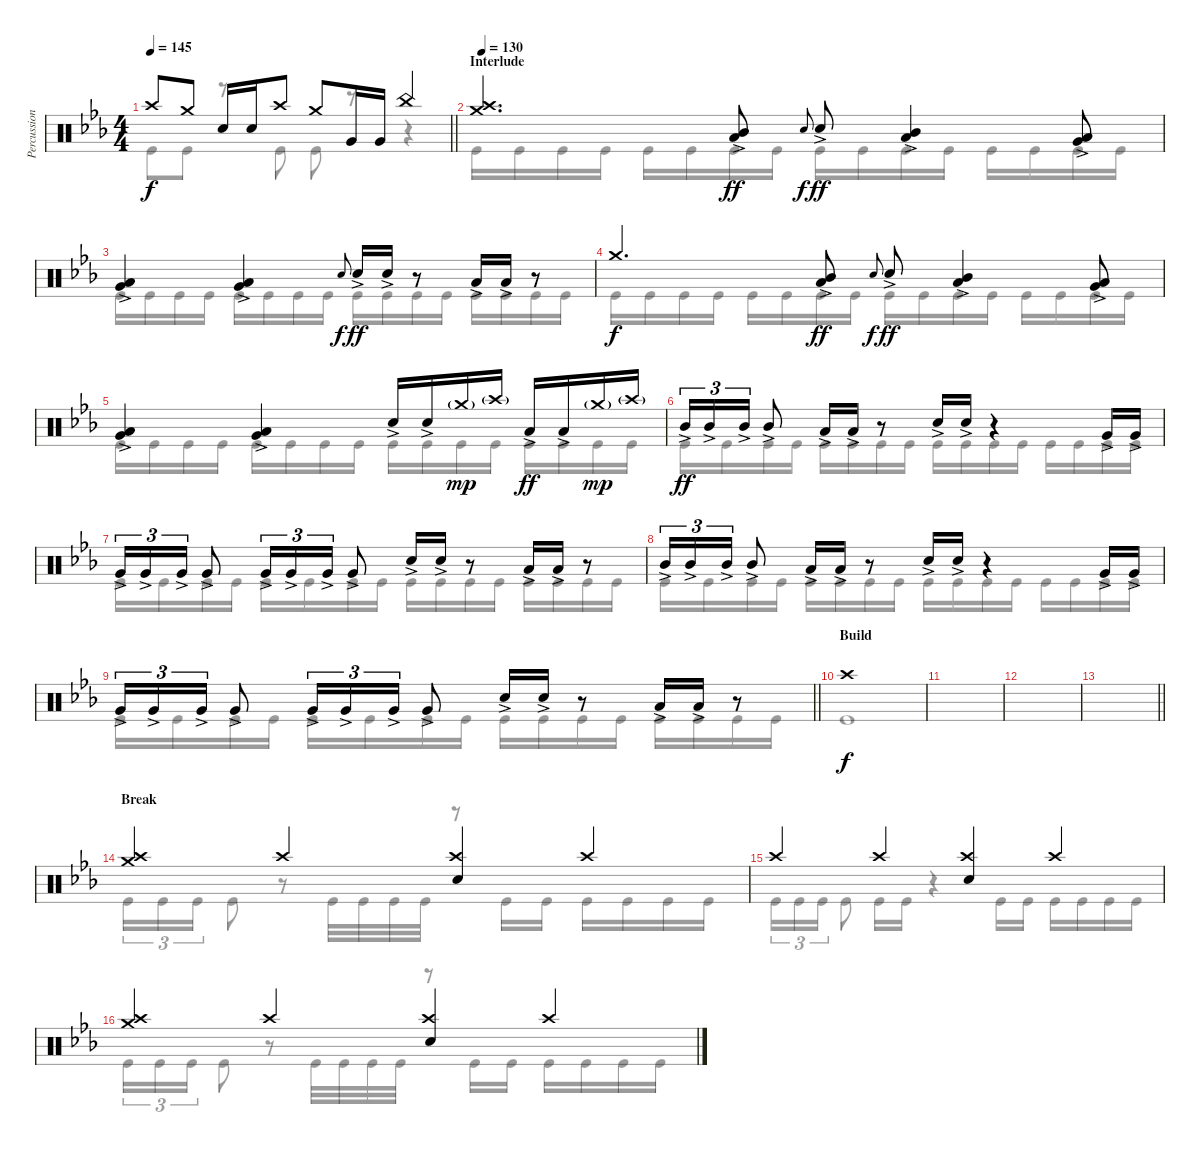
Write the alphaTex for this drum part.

\track ("Percussion" "Percussion") {instrument percussion}
\staff {score}
\articulation defaults
\voice
\ts (4 4)
\tempo 145
\clef neutral
\barLineRight lightlight
\ks cminor "Crash high (hit)".8{dy f} "Crash medium (hit)".8 "Electric Snare (hit)".16 "Electric Snare (hit)".16 "Crash high (hit)".8 "Crash medium (hit)".8 "Very Low Tom (hit)".16 "Very Low Tom (hit)".16 "China (hit)".4
|
\section ("" "Interlude")
\tempo 130
("Crash medium (hit)" "Crash high (hit)").4{d} ("Mid Tom (hit)"{ac} "Low Tom (hit)"{ac}).8{dy ff} "Electric Snare (hit)".8{gr onbeat dy f} "Electric Snare (hit)"{ac}.8{dy ff} ("Mid Tom (hit)"{ac} "Low Tom (hit)"{ac}).4 ("Low Tom (hit)"{ac} "Very Low Tom (hit)"{ac}).8 |
("Low Tom (hit)"{ac} "Very Low Tom (hit)"{ac}).4 ("Low Tom (hit)"{ac} "Very Low Tom (hit)"{ac}).4 "Electric Snare (hit)".8{gr onbeat dy f} "Electric Snare (hit)"{ac}.16{dy ff} "Electric Snare (hit)"{ac}.16 r.8 "Low Tom (hit)"{ac}.16 "Low Tom (hit)"{ac}.16 r.8 |
"Crash medium (hit)".4{d dy f} ("Mid Tom (hit)"{ac} "Low Tom (hit)"{ac}).8{dy ff} "Electric Snare (hit)".8{gr onbeat dy f} "Electric Snare (hit)"{ac}.8{dy ff} ("Mid Tom (hit)"{ac} "Low Tom (hit)"{ac}).4 ("Low Tom (hit)"{ac} "Very Low Tom (hit)"{ac}).8 |
("Low Tom (hit)"{ac} "Very Low Tom (hit)"{ac}).4 ("Low Tom (hit)"{ac} "Very Low Tom (hit)"{ac}).4 "Electric Snare (hit)"{ac}.16 "Electric Snare (hit)"{ac}.16 "Crash medium (hit)"{g}.16{dy mp} "Crash high (hit)"{g}.16 "Low Tom (hit)"{ac}.16{dy ff} "Low Tom (hit)"{ac}.16 "Crash medium (hit)"{g}.16{dy mp} "Crash high (hit)"{g}.16 |
"Mid Tom (hit)"{ac}.16{tu (3 2) dy ff} "Mid Tom (hit)"{ac}.16{tu (3 2)} "Mid Tom (hit)"{ac}.16{tu (3 2)} "Mid Tom (hit)"{ac}.8 "Low Tom (hit)"{ac}.16 "Low Tom (hit)"{ac}.16 r.8 "Electric Snare (hit)"{ac}.16 "Electric Snare (hit)"{ac}.16 r.4 "Very Low Tom (hit)"{ac}.16 "Very Low Tom (hit)"{ac}.16 |
"Very Low Tom (hit)"{ac}.16{tu (3 2)} "Very Low Tom (hit)"{ac}.16{tu (3 2)} "Very Low Tom (hit)"{ac}.16{tu (3 2)} "Very Low Tom (hit)"{ac}.8 "Very Low Tom (hit)"{ac}.16{tu (3 2)} "Very Low Tom (hit)"{ac}.16{tu (3 2)} "Very Low Tom (hit)"{ac}.16{tu (3 2)} "Very Low Tom (hit)"{ac}.8 "Electric Snare (hit)"{ac}.16 "Electric Snare (hit)"{ac}.16 r.8 "Low Tom (hit)"{ac}.16 "Low Tom (hit)"{ac}.16 r.8 |
"Mid Tom (hit)"{ac}.16{tu (3 2)} "Mid Tom (hit)"{ac}.16{tu (3 2)} "Mid Tom (hit)"{ac}.16{tu (3 2)} "Mid Tom (hit)"{ac}.8 "Low Tom (hit)"{ac}.16 "Low Tom (hit)"{ac}.16 r.8 "Electric Snare (hit)"{ac}.16 "Electric Snare (hit)"{ac}.16 r.4 "Very Low Tom (hit)"{ac}.16 "Very Low Tom (hit)"{ac}.16 |
\barLineRight lightlight "Very Low Tom (hit)"{ac}.16{tu (3 2)} "Very Low Tom (hit)"{ac}.16{tu (3 2)} "Very Low Tom (hit)"{ac}.16{tu (3 2)} "Very Low Tom (hit)"{ac}.8 "Very Low Tom (hit)"{ac}.16{tu (3 2)} "Very Low Tom (hit)"{ac}.16{tu (3 2)} "Very Low Tom (hit)"{ac}.16{tu (3 2)} "Very Low Tom (hit)"{ac}.8 "Electric Snare (hit)"{ac}.16 "Electric Snare (hit)"{ac}.16
r.8 "Low Tom (hit)"{ac}.16 "Low Tom (hit)"{ac}.16 r.8 |
\section ("" "Build")
"Crash high (hit)".1{dy f} |
|
|
\barLineRight lightlight
|
\section ("" "Break")
("Crash medium (hit)" "Crash high (hit)").4 "Crash high (hit)".4 ("Crash high (hit)" "Electric Snare (hit)").4 "Crash high (hit)".4 |
"Crash high (hit)".4 "Crash high (hit)".4 ("Crash high (hit)" "Electric Snare (hit)").4 "Crash high (hit)".4 |
("Crash medium (hit)" "Crash high (hit)").4 "Crash high (hit)".4 ("Crash high (hit)" "Electric Snare (hit)").4 "Crash high (hit)".4
\voice
\clef neutral
\ottava regular
\simile none
\barLineRight lightlight
\ks cminor "Kick (hit)".8{dy f} "Kick (hit)".8
r.8 "Kick (hit)".8 "Kick (hit)".8 r.8 r.4 |
"Kick (hit)".16 "Kick (hit)".16 "Kick (hit)".16 "Kick (hit)".16 "Kick (hit)".16 "Kick (hit)".16 "Kick (hit)".16 "Kick (hit)".16 "Kick (hit)".16 "Kick (hit)".16 "Kick (hit)".16 "Kick (hit)".16 "Kick (hit)".16 "Kick (hit)".16 "Kick (hit)".16 "Kick (hit)".16 |
"Kick (hit)".16 "Kick (hit)".16 "Kick (hit)".16 "Kick (hit)".16 "Kick (hit)".16 "Kick (hit)".16 "Kick (hit)".16 "Kick (hit)".16 "Kick (hit)".16 "Kick (hit)".16 "Kick (hit)".16 "Kick (hit)".16 "Kick (hit)".16 "Kick (hit)".16 "Kick (hit)".16 "Kick (hit)".16 |
"Kick (hit)".16 "Kick (hit)".16 "Kick (hit)".16 "Kick (hit)".16 "Kick (hit)".16 "Kick (hit)".16 "Kick (hit)".16 "Kick (hit)".16 "Kick (hit)".16 "Kick (hit)".16 "Kick (hit)".16 "Kick (hit)".16 "Kick (hit)".16 "Kick (hit)".16 "Kick (hit)".16 "Kick (hit)".16 |
"Kick (hit)".16 "Kick (hit)".16 "Kick (hit)".16 "Kick (hit)".16 "Kick (hit)".16 "Kick (hit)".16 "Kick (hit)".16 "Kick (hit)".16 "Kick (hit)".16 "Kick (hit)".16 "Kick (hit)".16 "Kick (hit)".16 "Kick (hit)".16 "Kick (hit)".16 "Kick (hit)".16 "Kick (hit)".16 |
"Kick (hit)".16 "Kick (hit)".16 "Kick (hit)".16 "Kick (hit)".16 "Kick (hit)".16 "Kick (hit)".16 "Kick (hit)".16 "Kick (hit)".16 "Kick (hit)".16 "Kick (hit)".16 "Kick (hit)".16 "Kick (hit)".16 "Kick (hit)".16 "Kick (hit)".16 "Kick (hit)".16 "Kick (hit)".16 |
"Kick (hit)".16 "Kick (hit)".16 "Kick (hit)".16 "Kick (hit)".16 "Kick (hit)".16 "Kick (hit)".16 "Kick (hit)".16 "Kick (hit)".16 "Kick (hit)".16 "Kick (hit)".16 "Kick (hit)".16 "Kick (hit)".16 "Kick (hit)".16 "Kick (hit)".16 "Kick (hit)".16 "Kick (hit)".16 |
"Kick (hit)".16 "Kick (hit)".16 "Kick (hit)".16 "Kick (hit)".16 "Kick (hit)".16 "Kick (hit)".16 "Kick (hit)".16 "Kick (hit)".16 "Kick (hit)".16 "Kick (hit)".16 "Kick (hit)".16 "Kick (hit)".16 "Kick (hit)".16 "Kick (hit)".16 "Kick (hit)".16 "Kick (hit)".16 |
\barLineRight lightlight "Kick (hit)".16 "Kick (hit)".16 "Kick (hit)".16 "Kick (hit)".16 "Kick (hit)".16 "Kick (hit)".16 "Kick (hit)".16 "Kick (hit)".16 "Kick (hit)".16 "Kick (hit)".16 "Kick (hit)".16 "Kick (hit)".16 "Kick (hit)".16 "Kick (hit)".16 "Kick (hit)".16 "Kick (hit)".16
|
"Kick (hit)".1 |
|
|
\barLineRight lightlight
|
"Kick (hit)".16{tu (3 2)} "Kick (hit)".16{tu (3 2)} "Kick (hit)".16{tu (3 2)} "Kick (hit)".8 r.8 "Kick (hit)".32 "Kick (hit)".32 "Kick (hit)".32 "Kick (hit)".32 r.8 "Kick (hit)".16 "Kick (hit)".16 "Kick (hit)".16 "Kick (hit)".16 "Kick (hit)".16 "Kick (hit)".16 |
"Kick (hit)".16{tu (3 2)} "Kick (hit)".16{tu (3 2)} "Kick (hit)".16{tu (3 2)} "Kick (hit)".8 "Kick (hit)".16 "Kick (hit)".16 r.4 "Kick (hit)".16 "Kick (hit)".16 "Kick (hit)".16 "Kick (hit)".16 "Kick (hit)".16 "Kick (hit)".16 |
"Kick (hit)".16{tu (3 2)} "Kick (hit)".16{tu (3 2)} "Kick (hit)".16{tu (3 2)} "Kick (hit)".8 r.8 "Kick (hit)".32 "Kick (hit)".32 "Kick (hit)".32 "Kick (hit)".32 r.8 "Kick (hit)".16 "Kick (hit)".16 "Kick (hit)".16 "Kick (hit)".16 "Kick (hit)".16 "Kick (hit)".16
